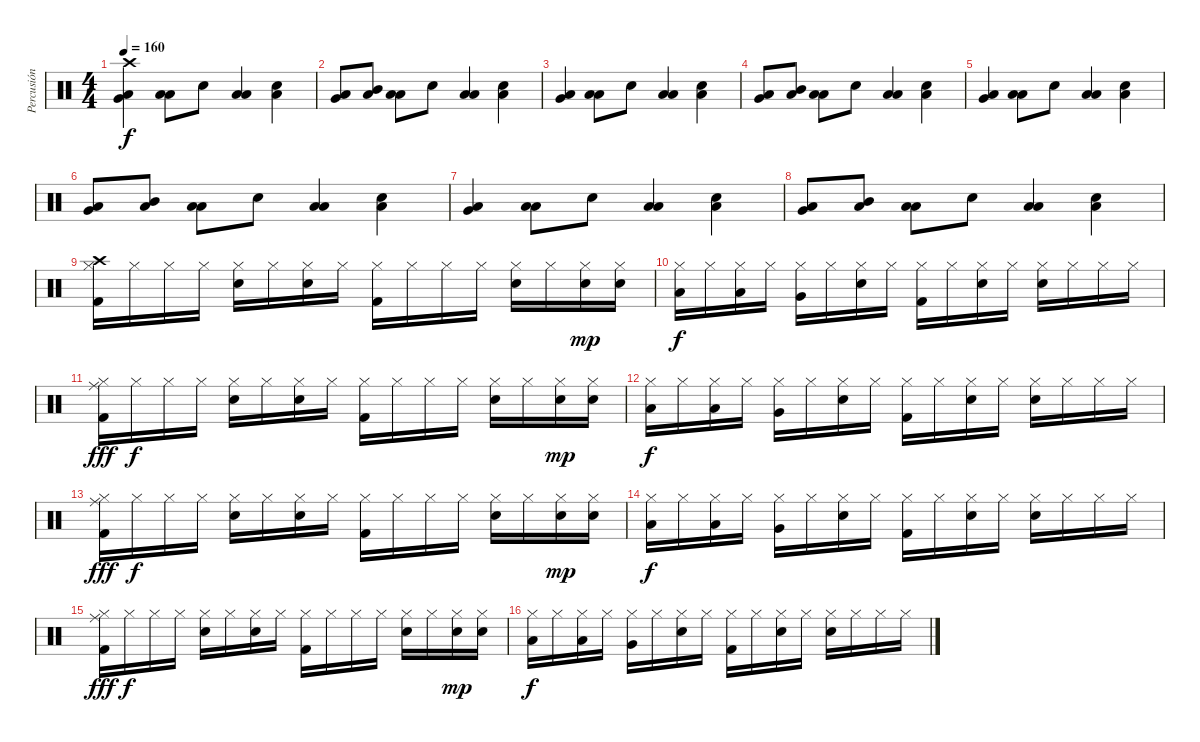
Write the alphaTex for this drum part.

\track ("Percusión" "Percusión") {instrument percussion}
\staff {score}
\articulation defaults
\ts (4 4)
\tempo 160
\clef neutral
\ks c
("Crash high (hit)" "Low Floor Tom (hit)" "Very Low Tom (hit)").4{dy f} ("Low Floor Tom (hit)" "Low Tom (hit)").8 "Snare (hit) 2".8 ("Low Floor Tom (hit)" "Low Tom (hit)").4 ("Low Floor Tom (hit)" "Snare (hit) 2").4 |
("Low Floor Tom (hit)" "Very Low Tom (hit)").8 ("Low Floor Tom (hit)" "Mid Tom (hit)").8 ("Low Floor Tom (hit)" "Low Tom (hit)").8 "Snare (hit) 2".8 ("Low Floor Tom (hit)" "Low Tom (hit)").4 ("Low Floor Tom (hit)" "Snare (hit) 2").4 |
("Low Floor Tom (hit)" "Very Low Tom (hit)").4 ("Low Floor Tom (hit)" "Low Tom (hit)").8 "Snare (hit) 2".8 ("Low Floor Tom (hit)" "Low Tom (hit)").4 ("Low Floor Tom (hit)" "Snare (hit) 2").4 |
("Low Floor Tom (hit)" "Very Low Tom (hit)").8 ("Low Floor Tom (hit)" "Mid Tom (hit)").8 ("Low Floor Tom (hit)" "Low Tom (hit)").8 "Snare (hit) 2".8 ("Low Floor Tom (hit)" "Low Tom (hit)").4 ("Low Floor Tom (hit)" "Snare (hit) 2").4 |
("Low Floor Tom (hit)" "Very Low Tom (hit)").4 ("Low Floor Tom (hit)" "Low Tom (hit)").8 "Snare (hit) 2".8 ("Low Floor Tom (hit)" "Low Tom (hit)").4 ("Low Floor Tom (hit)" "Snare (hit) 2").4 |
("Low Floor Tom (hit)" "Very Low Tom (hit)").8 ("Low Floor Tom (hit)" "Mid Tom (hit)").8 ("Low Floor Tom (hit)" "Low Tom (hit)").8 "Snare (hit) 2".8 ("Low Floor Tom (hit)" "Low Tom (hit)").4 ("Low Floor Tom (hit)" "Snare (hit) 2").4 |
("Low Floor Tom (hit)" "Very Low Tom (hit)").4 ("Low Floor Tom (hit)" "Low Tom (hit)").8 "Snare (hit) 2".8 ("Low Floor Tom (hit)" "Low Tom (hit)").4 ("Low Floor Tom (hit)" "Snare (hit) 2").4 |
("Low Floor Tom (hit)" "Very Low Tom (hit)").8 ("Low Floor Tom (hit)" "Mid Tom (hit)").8 ("Low Floor Tom (hit)" "Low Tom (hit)").8 "Snare (hit) 2".8 ("Low Floor Tom (hit)" "Low Tom (hit)").4 ("Low Floor Tom (hit)" "Snare (hit) 2").4 |
("Crash high (hit)" "Hi-Hat (closed)" "Kick (hit) 2").16 "Hi-Hat (closed)".16 "Hi-Hat (closed)".16 "Hi-Hat (closed)".16 ("Hi-Hat (closed)" "Snare (hit) 2").16 "Hi-Hat (closed)".16 ("Hi-Hat (closed)" "Snare (hit) 2").16 "Hi-Hat (closed)".16 ("Hi-Hat (closed)" "Kick (hit) 2").16 "Hi-Hat (closed)".16 "Hi-Hat (closed)".16 "Hi-Hat (closed)".16 ("Hi-Hat (closed)" "Snare (hit) 2").16 "Hi-Hat (closed)".16 ("Hi-Hat (closed)" "Snare (hit) 2").16{dy mp} ("Hi-Hat (closed)" "Snare (hit) 2").16 |
("Hi-Hat (closed)" "Low Floor Tom (hit)").16{dy f} "Hi-Hat (closed)".16 ("Hi-Hat (closed)" "Low Tom (hit)").16 "Hi-Hat (closed)".16 ("Hi-Hat (closed)" "Very Low Tom (hit)").16 "Hi-Hat (closed)".16 ("Hi-Hat (closed)" "Snare (hit) 2").16 "Hi-Hat (closed)".16 ("Hi-Hat (closed)" "Kick (hit) 2").16 "Hi-Hat (closed)".16 ("Hi-Hat (closed)" "Snare (hit) 2").16 "Hi-Hat (closed)".16 ("Hi-Hat (closed)" "Snare (hit) 2").16 "Hi-Hat (closed)".16 "Hi-Hat (closed)".16 "Hi-Hat (closed)".16 |
("Ride (middle)" "Hi-Hat (closed)" "Kick (hit) 2").16{dy fff} "Hi-Hat (closed)".16{dy f} "Hi-Hat (closed)".16 "Hi-Hat (closed)".16 ("Hi-Hat (closed)" "Snare (hit) 2").16 "Hi-Hat (closed)".16 ("Hi-Hat (closed)" "Snare (hit) 2").16 "Hi-Hat (closed)".16 ("Hi-Hat (closed)" "Kick (hit) 2").16 "Hi-Hat (closed)".16 "Hi-Hat (closed)".16 "Hi-Hat (closed)".16 ("Hi-Hat (closed)" "Snare (hit) 2").16 "Hi-Hat (closed)".16 ("Hi-Hat (closed)" "Snare (hit) 2").16{dy mp} ("Hi-Hat (closed)" "Snare (hit) 2").16 |
("Hi-Hat (closed)" "Low Floor Tom (hit)").16{dy f} "Hi-Hat (closed)".16 ("Hi-Hat (closed)" "Low Tom (hit)").16 "Hi-Hat (closed)".16 ("Hi-Hat (closed)" "Very Low Tom (hit)").16 "Hi-Hat (closed)".16 ("Hi-Hat (closed)" "Snare (hit) 2").16 "Hi-Hat (closed)".16 ("Hi-Hat (closed)" "Kick (hit) 2").16 "Hi-Hat (closed)".16 ("Hi-Hat (closed)" "Snare (hit) 2").16 "Hi-Hat (closed)".16 ("Hi-Hat (closed)" "Snare (hit) 2").16 "Hi-Hat (closed)".16 "Hi-Hat (closed)".16 "Hi-Hat (closed)".16 |
("Ride (middle)" "Hi-Hat (closed)" "Kick (hit) 2").16{dy fff} "Hi-Hat (closed)".16{dy f} "Hi-Hat (closed)".16 "Hi-Hat (closed)".16 ("Hi-Hat (closed)" "Snare (hit) 2").16 "Hi-Hat (closed)".16 ("Hi-Hat (closed)" "Snare (hit) 2").16 "Hi-Hat (closed)".16 ("Hi-Hat (closed)" "Kick (hit) 2").16 "Hi-Hat (closed)".16 "Hi-Hat (closed)".16 "Hi-Hat (closed)".16 ("Hi-Hat (closed)" "Snare (hit) 2").16 "Hi-Hat (closed)".16 ("Hi-Hat (closed)" "Snare (hit) 2").16{dy mp} ("Hi-Hat (closed)" "Snare (hit) 2").16 |
("Hi-Hat (closed)" "Low Floor Tom (hit)").16{dy f} "Hi-Hat (closed)".16 ("Hi-Hat (closed)" "Low Tom (hit)").16 "Hi-Hat (closed)".16 ("Hi-Hat (closed)" "Very Low Tom (hit)").16 "Hi-Hat (closed)".16 ("Hi-Hat (closed)" "Snare (hit) 2").16 "Hi-Hat (closed)".16 ("Hi-Hat (closed)" "Kick (hit) 2").16 "Hi-Hat (closed)".16 ("Hi-Hat (closed)" "Snare (hit) 2").16 "Hi-Hat (closed)".16 ("Hi-Hat (closed)" "Snare (hit) 2").16 "Hi-Hat (closed)".16 "Hi-Hat (closed)".16 "Hi-Hat (closed)".16 |
("Ride (middle)" "Hi-Hat (closed)" "Kick (hit) 2").16{dy fff} "Hi-Hat (closed)".16{dy f} "Hi-Hat (closed)".16 "Hi-Hat (closed)".16 ("Hi-Hat (closed)" "Snare (hit) 2").16 "Hi-Hat (closed)".16 ("Hi-Hat (closed)" "Snare (hit) 2").16 "Hi-Hat (closed)".16 ("Hi-Hat (closed)" "Kick (hit) 2").16 "Hi-Hat (closed)".16 "Hi-Hat (closed)".16 "Hi-Hat (closed)".16 ("Hi-Hat (closed)" "Snare (hit) 2").16 "Hi-Hat (closed)".16 ("Hi-Hat (closed)" "Snare (hit) 2").16{dy mp} ("Hi-Hat (closed)" "Snare (hit) 2").16 |
("Hi-Hat (closed)" "Low Floor Tom (hit)").16{dy f} "Hi-Hat (closed)".16 ("Hi-Hat (closed)" "Low Tom (hit)").16 "Hi-Hat (closed)".16 ("Hi-Hat (closed)" "Very Low Tom (hit)").16 "Hi-Hat (closed)".16 ("Hi-Hat (closed)" "Snare (hit) 2").16 "Hi-Hat (closed)".16 ("Hi-Hat (closed)" "Kick (hit) 2").16 "Hi-Hat (closed)".16 ("Hi-Hat (closed)" "Snare (hit) 2").16 "Hi-Hat (closed)".16 ("Hi-Hat (closed)" "Snare (hit) 2").16 "Hi-Hat (closed)".16 "Hi-Hat (closed)".16 "Hi-Hat (closed)".16
